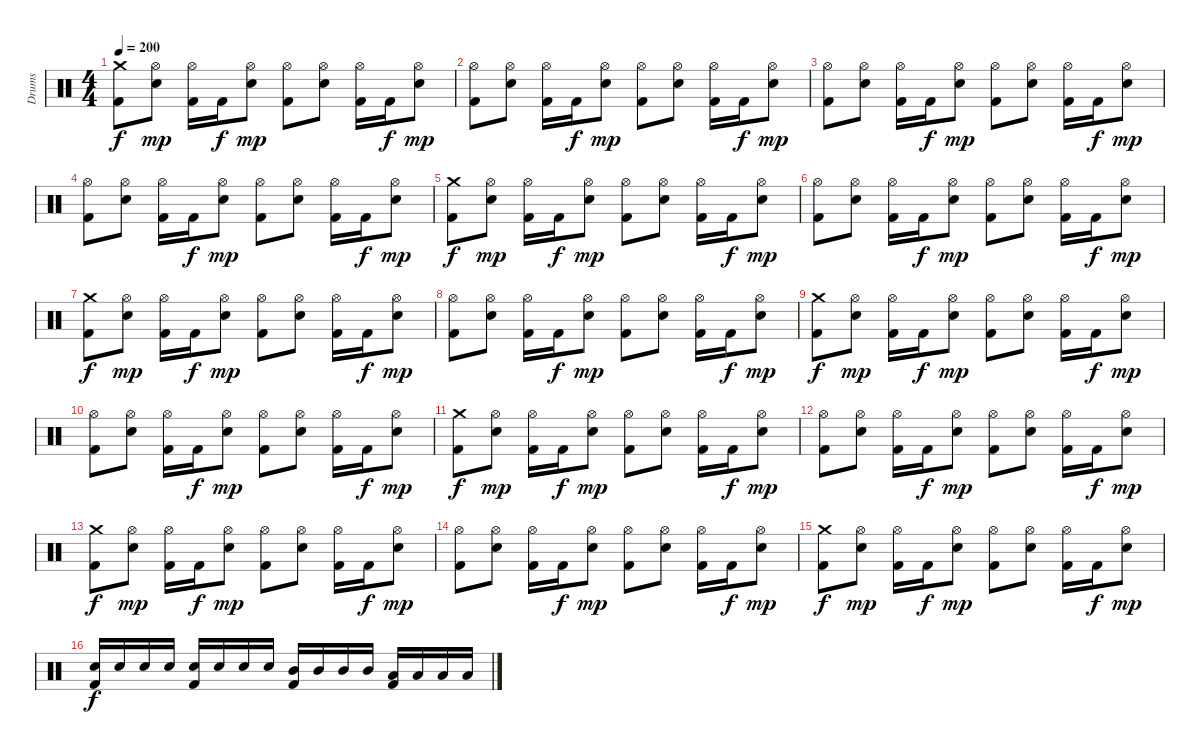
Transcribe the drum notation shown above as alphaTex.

\track ("Drums" "Drums") {instrument percussion}
\staff {score}
\articulation defaults
\ts (4 4)
\tempo 200
\clef neutral
\ks c
("Crash medium (hit)" "Kick (hit) 2").8{dy f} ("Hi-Hat (open)" "Snare (hit) 2").8{dy mp} ("Hi-Hat (open)" "Kick (hit) 2").16 "Kick (hit) 2".16{dy f} ("Hi-Hat (open)" "Snare (hit) 2").8{dy mp} ("Hi-Hat (open)" "Kick (hit) 2").8 ("Hi-Hat (open)" "Snare (hit) 2").8 ("Hi-Hat (open)" "Kick (hit) 2").16 "Kick (hit) 2".16{dy f} ("Hi-Hat (open)" "Snare (hit) 2").8{dy mp} |
("Hi-Hat (open)" "Kick (hit) 2").8 ("Hi-Hat (open)" "Snare (hit) 2").8 ("Hi-Hat (open)" "Kick (hit) 2").16 "Kick (hit) 2".16{dy f} ("Hi-Hat (open)" "Snare (hit) 2").8{dy mp} ("Hi-Hat (open)" "Kick (hit) 2").8 ("Hi-Hat (open)" "Snare (hit) 2").8 ("Hi-Hat (open)" "Kick (hit) 2").16 "Kick (hit) 2".16{dy f} ("Hi-Hat (open)" "Snare (hit) 2").8{dy mp} |
("Hi-Hat (open)" "Kick (hit) 2").8 ("Hi-Hat (open)" "Snare (hit) 2").8 ("Hi-Hat (open)" "Kick (hit) 2").16 "Kick (hit) 2".16{dy f} ("Hi-Hat (open)" "Snare (hit) 2").8{dy mp} ("Hi-Hat (open)" "Kick (hit) 2").8 ("Hi-Hat (open)" "Snare (hit) 2").8 ("Hi-Hat (open)" "Kick (hit) 2").16 "Kick (hit) 2".16{dy f} ("Hi-Hat (open)" "Snare (hit) 2").8{dy mp} |
("Hi-Hat (open)" "Kick (hit) 2").8 ("Hi-Hat (open)" "Snare (hit) 2").8 ("Hi-Hat (open)" "Kick (hit) 2").16 "Kick (hit) 2".16{dy f} ("Hi-Hat (open)" "Snare (hit) 2").8{dy mp} ("Hi-Hat (open)" "Kick (hit) 2").8 ("Hi-Hat (open)" "Snare (hit) 2").8 ("Hi-Hat (open)" "Kick (hit) 2").16 "Kick (hit) 2".16{dy f} ("Hi-Hat (open)" "Snare (hit) 2").8{dy mp} |
("Crash medium (hit)" "Kick (hit) 2").8{dy f} ("Hi-Hat (open)" "Snare (hit) 2").8{dy mp} ("Hi-Hat (open)" "Kick (hit) 2").16 "Kick (hit) 2".16{dy f} ("Hi-Hat (open)" "Snare (hit) 2").8{dy mp} ("Hi-Hat (open)" "Kick (hit) 2").8 ("Hi-Hat (open)" "Snare (hit) 2").8 ("Hi-Hat (open)" "Kick (hit) 2").16 "Kick (hit) 2".16{dy f} ("Hi-Hat (open)" "Snare (hit) 2").8{dy mp} |
("Hi-Hat (open)" "Kick (hit) 2").8 ("Hi-Hat (open)" "Snare (hit) 2").8 ("Hi-Hat (open)" "Kick (hit) 2").16 "Kick (hit) 2".16{dy f} ("Hi-Hat (open)" "Snare (hit) 2").8{dy mp} ("Hi-Hat (open)" "Kick (hit) 2").8 ("Hi-Hat (open)" "Snare (hit) 2").8 ("Hi-Hat (open)" "Kick (hit) 2").16 "Kick (hit) 2".16{dy f} ("Hi-Hat (open)" "Snare (hit) 2").8{dy mp} |
("Crash medium (hit)" "Kick (hit) 2").8{dy f} ("Hi-Hat (open)" "Snare (hit) 2").8{dy mp} ("Hi-Hat (open)" "Kick (hit) 2").16 "Kick (hit) 2".16{dy f} ("Hi-Hat (open)" "Snare (hit) 2").8{dy mp} ("Hi-Hat (open)" "Kick (hit) 2").8 ("Hi-Hat (open)" "Snare (hit) 2").8 ("Hi-Hat (open)" "Kick (hit) 2").16 "Kick (hit) 2".16{dy f} ("Hi-Hat (open)" "Snare (hit) 2").8{dy mp} |
("Hi-Hat (open)" "Kick (hit) 2").8 ("Hi-Hat (open)" "Snare (hit) 2").8 ("Hi-Hat (open)" "Kick (hit) 2").16 "Kick (hit) 2".16{dy f} ("Hi-Hat (open)" "Snare (hit) 2").8{dy mp} ("Hi-Hat (open)" "Kick (hit) 2").8 ("Hi-Hat (open)" "Snare (hit) 2").8 ("Hi-Hat (open)" "Kick (hit) 2").16 "Kick (hit) 2".16{dy f} ("Hi-Hat (open)" "Snare (hit) 2").8{dy mp} |
("Crash medium (hit)" "Kick (hit) 2").8{dy f} ("Hi-Hat (open)" "Snare (hit) 2").8{dy mp} ("Hi-Hat (open)" "Kick (hit) 2").16 "Kick (hit) 2".16{dy f} ("Hi-Hat (open)" "Snare (hit) 2").8{dy mp} ("Hi-Hat (open)" "Kick (hit) 2").8 ("Hi-Hat (open)" "Snare (hit) 2").8 ("Hi-Hat (open)" "Kick (hit) 2").16 "Kick (hit) 2".16{dy f} ("Hi-Hat (open)" "Snare (hit) 2").8{dy mp} |
("Hi-Hat (open)" "Kick (hit) 2").8 ("Hi-Hat (open)" "Snare (hit) 2").8 ("Hi-Hat (open)" "Kick (hit) 2").16 "Kick (hit) 2".16{dy f} ("Hi-Hat (open)" "Snare (hit) 2").8{dy mp} ("Hi-Hat (open)" "Kick (hit) 2").8 ("Hi-Hat (open)" "Snare (hit) 2").8 ("Hi-Hat (open)" "Kick (hit) 2").16 "Kick (hit) 2".16{dy f} ("Hi-Hat (open)" "Snare (hit) 2").8{dy mp} |
("Crash medium (hit)" "Kick (hit) 2").8{dy f} ("Hi-Hat (open)" "Snare (hit) 2").8{dy mp} ("Hi-Hat (open)" "Kick (hit) 2").16 "Kick (hit) 2".16{dy f} ("Hi-Hat (open)" "Snare (hit) 2").8{dy mp} ("Hi-Hat (open)" "Kick (hit) 2").8 ("Hi-Hat (open)" "Snare (hit) 2").8 ("Hi-Hat (open)" "Kick (hit) 2").16 "Kick (hit) 2".16{dy f} ("Hi-Hat (open)" "Snare (hit) 2").8{dy mp} |
("Hi-Hat (open)" "Kick (hit) 2").8 ("Hi-Hat (open)" "Snare (hit) 2").8 ("Hi-Hat (open)" "Kick (hit) 2").16 "Kick (hit) 2".16{dy f} ("Hi-Hat (open)" "Snare (hit) 2").8{dy mp} ("Hi-Hat (open)" "Kick (hit) 2").8 ("Hi-Hat (open)" "Snare (hit) 2").8 ("Hi-Hat (open)" "Kick (hit) 2").16 "Kick (hit) 2".16{dy f} ("Hi-Hat (open)" "Snare (hit) 2").8{dy mp} |
("Crash medium (hit)" "Kick (hit) 2").8{dy f} ("Hi-Hat (open)" "Snare (hit) 2").8{dy mp} ("Hi-Hat (open)" "Kick (hit) 2").16 "Kick (hit) 2".16{dy f} ("Hi-Hat (open)" "Snare (hit) 2").8{dy mp} ("Hi-Hat (open)" "Kick (hit) 2").8 ("Hi-Hat (open)" "Snare (hit) 2").8 ("Hi-Hat (open)" "Kick (hit) 2").16 "Kick (hit) 2".16{dy f} ("Hi-Hat (open)" "Snare (hit) 2").8{dy mp} |
("Hi-Hat (open)" "Kick (hit) 2").8 ("Hi-Hat (open)" "Snare (hit) 2").8 ("Hi-Hat (open)" "Kick (hit) 2").16 "Kick (hit) 2".16{dy f} ("Hi-Hat (open)" "Snare (hit) 2").8{dy mp} ("Hi-Hat (open)" "Kick (hit) 2").8 ("Hi-Hat (open)" "Snare (hit) 2").8 ("Hi-Hat (open)" "Kick (hit) 2").16 "Kick (hit) 2".16{dy f} ("Hi-Hat (open)" "Snare (hit) 2").8{dy mp} |
("Crash medium (hit)" "Kick (hit) 2").8{dy f} ("Hi-Hat (open)" "Snare (hit) 2").8{dy mp} ("Hi-Hat (open)" "Kick (hit) 2").16 "Kick (hit) 2".16{dy f} ("Hi-Hat (open)" "Snare (hit) 2").8{dy mp} ("Hi-Hat (open)" "Kick (hit) 2").8 ("Hi-Hat (open)" "Snare (hit) 2").8 ("Hi-Hat (open)" "Kick (hit) 2").16 "Kick (hit) 2".16{dy f} ("Hi-Hat (open)" "Snare (hit) 2").8{dy mp} |
("Snare (hit) 2" "Kick (hit) 2").16{dy f} "Snare (hit) 2".16 "Snare (hit) 2".16 "Snare (hit) 2".16 ("Snare (hit) 2" "Kick (hit) 2").16 "Snare (hit) 2".16 "Snare (hit) 2".16 "Snare (hit) 2".16 ("Mid Tom (hit)" "Kick (hit) 2").16 "Mid Tom (hit)".16 "Mid Tom (hit)".16 "Mid Tom (hit)".16 ("Low Tom (hit)" "Kick (hit) 2").16 "Low Tom (hit)".16 "Low Tom (hit)".16 "Low Tom (hit)".16
